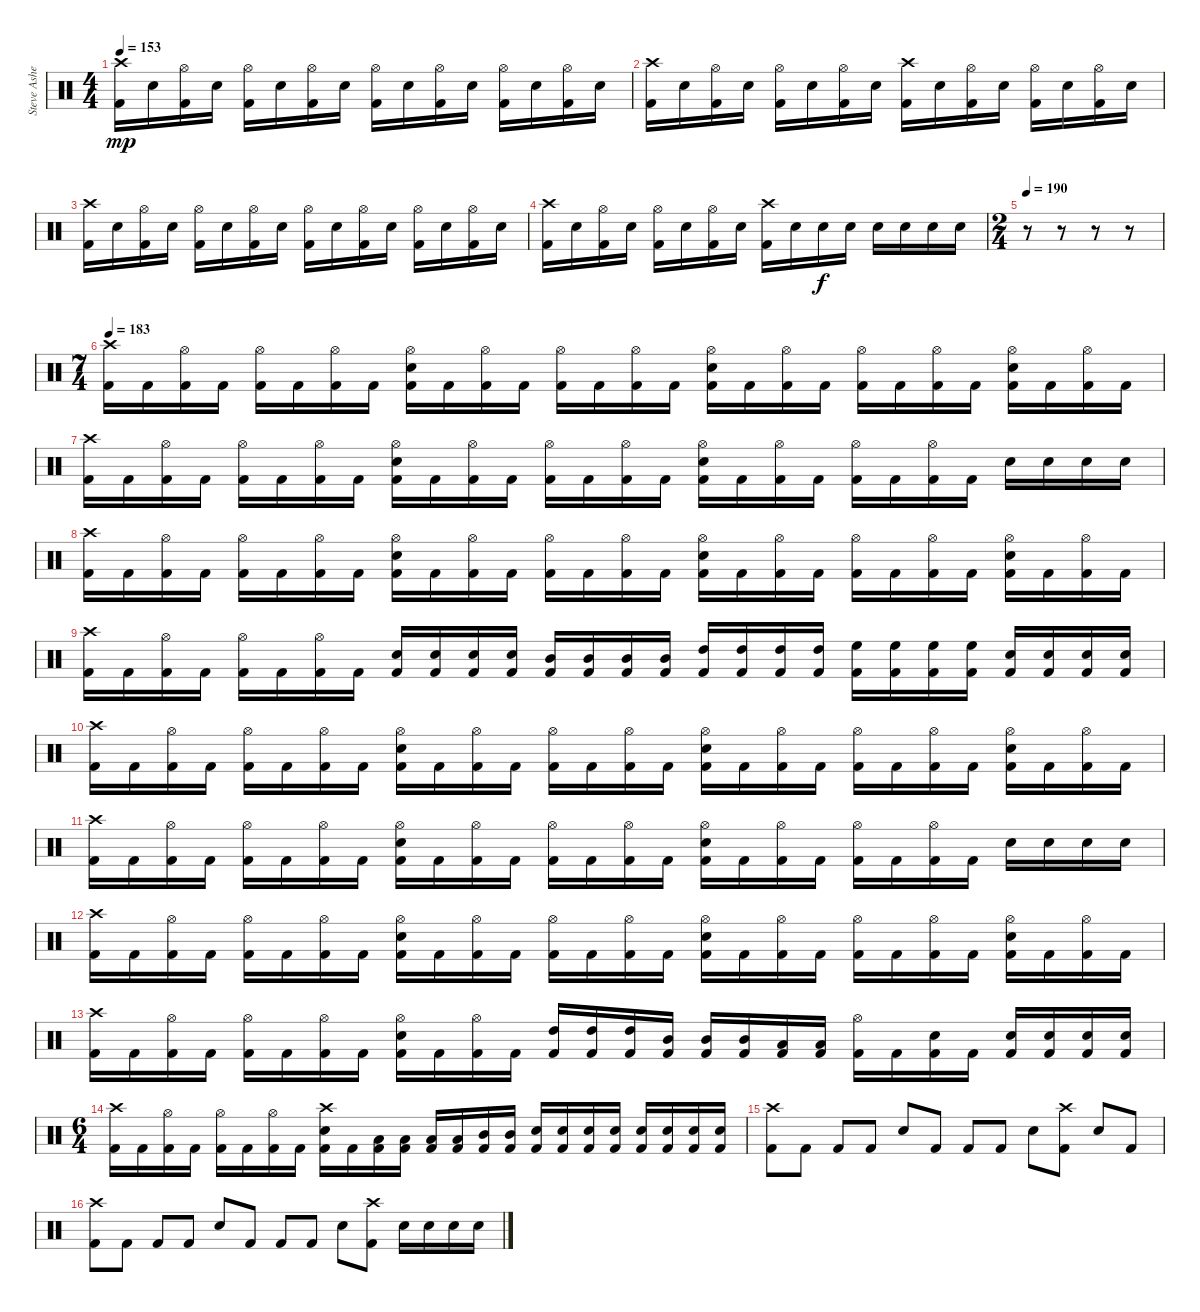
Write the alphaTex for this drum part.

\track ("Steve Asheim" "Steve Ashe") {instrument percussion}
\staff {score}
\articulation defaults
\ts (4 4)
\tempo 153
\clef neutral
\ks c
("Crash high (hit)" "Kick (hit) 2").16{dy mp} "Electric Snare (hit)".16 ("Hi-Hat (open)" "Kick (hit) 2").16 "Electric Snare (hit)".16 ("Hi-Hat (open)" "Kick (hit) 2").16 "Electric Snare (hit)".16 ("Hi-Hat (open)" "Kick (hit) 2").16 "Electric Snare (hit)".16 ("Hi-Hat (open)" "Kick (hit) 2").16 "Electric Snare (hit)".16 ("Hi-Hat (open)" "Kick (hit) 2").16 "Electric Snare (hit)".16 ("Hi-Hat (open)" "Kick (hit) 2").16 "Electric Snare (hit)".16 ("Hi-Hat (open)" "Kick (hit) 2").16 "Electric Snare (hit)".16 |
("Crash high (hit)" "Kick (hit) 2").16 "Electric Snare (hit)".16 ("Hi-Hat (open)" "Kick (hit) 2").16 "Electric Snare (hit)".16 ("Hi-Hat (open)" "Kick (hit) 2").16 "Electric Snare (hit)".16 ("Hi-Hat (open)" "Kick (hit) 2").16 "Electric Snare (hit)".16 ("Crash high (hit)" "Kick (hit) 2").16 "Electric Snare (hit)".16 ("Hi-Hat (open)" "Kick (hit) 2").16 "Electric Snare (hit)".16 ("Hi-Hat (open)" "Kick (hit) 2").16 "Electric Snare (hit)".16 ("Hi-Hat (open)" "Kick (hit) 2").16 "Electric Snare (hit)".16 |
("Crash high (hit)" "Kick (hit) 2").16 "Electric Snare (hit)".16 ("Hi-Hat (open)" "Kick (hit) 2").16 "Electric Snare (hit)".16 ("Hi-Hat (open)" "Kick (hit) 2").16 "Electric Snare (hit)".16 ("Hi-Hat (open)" "Kick (hit) 2").16 "Electric Snare (hit)".16 ("Hi-Hat (open)" "Kick (hit) 2").16 "Electric Snare (hit)".16 ("Hi-Hat (open)" "Kick (hit) 2").16 "Electric Snare (hit)".16 ("Hi-Hat (open)" "Kick (hit) 2").16 "Electric Snare (hit)".16 ("Hi-Hat (open)" "Kick (hit) 2").16 "Electric Snare (hit)".16 |
("Crash high (hit)" "Kick (hit) 2").16 "Electric Snare (hit)".16 ("Hi-Hat (open)" "Kick (hit) 2").16 "Electric Snare (hit)".16 ("Hi-Hat (open)" "Kick (hit) 2").16 "Electric Snare (hit)".16 ("Hi-Hat (open)" "Kick (hit) 2").16 "Electric Snare (hit)".16 ("Crash high (hit)" "Kick (hit) 2").16 "Electric Snare (hit)".16 "Electric Snare (hit)".16{dy f} "Electric Snare (hit)".16 "Electric Snare (hit)".16 "Electric Snare (hit)".16 "Electric Snare (hit)".16 "Electric Snare (hit)".16 |
\ts (2 4)
\tempo 190
r.8 r.8 r.8 r.8 |
\ts (7 4)
\tempo 183
("Crash high (hit)" "Kick (hit) 2").16 "Kick (hit) 2".16 ("Hi-Hat (open)" "Kick (hit) 2").16 "Kick (hit) 2".16 ("Hi-Hat (open)" "Kick (hit) 2").16 "Kick (hit) 2".16 ("Hi-Hat (open)" "Kick (hit) 2").16 "Kick (hit) 2".16 ("Hi-Hat (open)" "Electric Snare (hit)" "Kick (hit) 2").16 "Kick (hit) 2".16 ("Hi-Hat (open)" "Kick (hit) 2").16 "Kick (hit) 2".16 ("Hi-Hat (open)" "Kick (hit) 2").16 "Kick (hit) 2".16 ("Hi-Hat (open)" "Kick (hit) 2").16 "Kick (hit) 2".16 ("Hi-Hat (open)" "Electric Snare (hit)" "Kick (hit) 2").16 "Kick (hit) 2".16 ("Hi-Hat (open)" "Kick (hit) 2").16 "Kick (hit) 2".16 ("Hi-Hat (open)" "Kick (hit) 2").16 "Kick (hit) 2".16 ("Hi-Hat (open)" "Kick (hit) 2").16 "Kick (hit) 2".16 ("Hi-Hat (open)" "Electric Snare (hit)" "Kick (hit) 2").16 "Kick (hit) 2".16 ("Hi-Hat (open)" "Kick (hit) 2").16 "Kick (hit) 2".16 |
("Crash high (hit)" "Kick (hit) 2").16 "Kick (hit) 2".16 ("Hi-Hat (open)" "Kick (hit) 2").16 "Kick (hit) 2".16 ("Hi-Hat (open)" "Kick (hit) 2").16 "Kick (hit) 2".16 ("Hi-Hat (open)" "Kick (hit) 2").16 "Kick (hit) 2".16 ("Hi-Hat (open)" "Electric Snare (hit)" "Kick (hit) 2").16 "Kick (hit) 2".16 ("Hi-Hat (open)" "Kick (hit) 2").16 "Kick (hit) 2".16 ("Hi-Hat (open)" "Kick (hit) 2").16 "Kick (hit) 2".16 ("Hi-Hat (open)" "Kick (hit) 2").16 "Kick (hit) 2".16 ("Hi-Hat (open)" "Electric Snare (hit)" "Kick (hit) 2").16 "Kick (hit) 2".16 ("Hi-Hat (open)" "Kick (hit) 2").16 "Kick (hit) 2".16 ("Hi-Hat (open)" "Kick (hit) 2").16 "Kick (hit) 2".16 ("Hi-Hat (open)" "Kick (hit) 2").16 "Kick (hit) 2".16 "Electric Snare (hit)".16 "Electric Snare (hit)".16 "Electric Snare (hit)".16 "Electric Snare (hit)".16 |
("Crash high (hit)" "Kick (hit) 2").16 "Kick (hit) 2".16 ("Hi-Hat (open)" "Kick (hit) 2").16 "Kick (hit) 2".16 ("Hi-Hat (open)" "Kick (hit) 2").16 "Kick (hit) 2".16 ("Hi-Hat (open)" "Kick (hit) 2").16 "Kick (hit) 2".16 ("Hi-Hat (open)" "Electric Snare (hit)" "Kick (hit) 2").16 "Kick (hit) 2".16 ("Hi-Hat (open)" "Kick (hit) 2").16 "Kick (hit) 2".16 ("Hi-Hat (open)" "Kick (hit) 2").16 "Kick (hit) 2".16 ("Hi-Hat (open)" "Kick (hit) 2").16 "Kick (hit) 2".16 ("Hi-Hat (open)" "Electric Snare (hit)" "Kick (hit) 2").16 "Kick (hit) 2".16 ("Hi-Hat (open)" "Kick (hit) 2").16 "Kick (hit) 2".16 ("Hi-Hat (open)" "Kick (hit) 2").16 "Kick (hit) 2".16 ("Hi-Hat (open)" "Kick (hit) 2").16 "Kick (hit) 2".16 ("Hi-Hat (open)" "Electric Snare (hit)" "Kick (hit) 2").16 "Kick (hit) 2".16 ("Hi-Hat (open)" "Kick (hit) 2").16 "Kick (hit) 2".16 |
("Crash high (hit)" "Kick (hit) 2").16 "Kick (hit) 2".16 ("Hi-Hat (open)" "Kick (hit) 2").16 "Kick (hit) 2".16 ("Hi-Hat (open)" "Kick (hit) 2").16 "Kick (hit) 2".16 ("Hi-Hat (open)" "Kick (hit) 2").16 "Kick (hit) 2".16 ("Snare (hit) 2" "Kick (hit) 2").16 ("Snare (hit) 2" "Kick (hit) 2").16 ("Snare (hit) 2" "Kick (hit) 2").16 ("Snare (hit) 2" "Kick (hit) 2").16 ("Mid Tom (hit)" "Kick (hit) 2").16 ("Mid Tom (hit)" "Kick (hit) 2").16 ("Mid Tom (hit)" "Kick (hit) 2").16 ("Mid Tom (hit)" "Kick (hit) 2").16 ("High Tom (hit)" "Kick (hit) 2").16 ("High Tom (hit)" "Kick (hit) 2").16 ("High Tom (hit)" "Kick (hit) 2").16 ("High Tom (hit)" "Kick (hit) 2").16 ("High Floor Tom (hit)" "Kick (hit) 2").16 ("High Floor Tom (hit)" "Kick (hit) 2").16 ("High Floor Tom (hit)" "Kick (hit) 2").16 ("High Floor Tom (hit)" "Kick (hit) 2").16 ("Electric Snare (hit)" "Kick (hit) 2").16 ("Electric Snare (hit)" "Kick (hit) 2").16 ("Electric Snare (hit)" "Kick (hit) 2").16 ("Electric Snare (hit)" "Kick (hit) 2").16 |
("Crash high (hit)" "Kick (hit) 2").16 "Kick (hit) 2".16 ("Hi-Hat (open)" "Kick (hit) 2").16 "Kick (hit) 2".16 ("Hi-Hat (open)" "Kick (hit) 2").16 "Kick (hit) 2".16 ("Hi-Hat (open)" "Kick (hit) 2").16 "Kick (hit) 2".16 ("Hi-Hat (open)" "Electric Snare (hit)" "Kick (hit) 2").16 "Kick (hit) 2".16 ("Hi-Hat (open)" "Kick (hit) 2").16 "Kick (hit) 2".16 ("Hi-Hat (open)" "Kick (hit) 2").16 "Kick (hit) 2".16 ("Hi-Hat (open)" "Kick (hit) 2").16 "Kick (hit) 2".16 ("Hi-Hat (open)" "Electric Snare (hit)" "Kick (hit) 2").16 "Kick (hit) 2".16 ("Hi-Hat (open)" "Kick (hit) 2").16 "Kick (hit) 2".16 ("Hi-Hat (open)" "Kick (hit) 2").16 "Kick (hit) 2".16 ("Hi-Hat (open)" "Kick (hit) 2").16 "Kick (hit) 2".16 ("Hi-Hat (open)" "Electric Snare (hit)" "Kick (hit) 2").16 "Kick (hit) 2".16 ("Hi-Hat (open)" "Kick (hit) 2").16 "Kick (hit) 2".16 |
("Crash high (hit)" "Kick (hit) 2").16 "Kick (hit) 2".16 ("Hi-Hat (open)" "Kick (hit) 2").16 "Kick (hit) 2".16 ("Hi-Hat (open)" "Kick (hit) 2").16 "Kick (hit) 2".16 ("Hi-Hat (open)" "Kick (hit) 2").16 "Kick (hit) 2".16 ("Hi-Hat (open)" "Electric Snare (hit)" "Kick (hit) 2").16 "Kick (hit) 2".16 ("Hi-Hat (open)" "Kick (hit) 2").16 "Kick (hit) 2".16 ("Hi-Hat (open)" "Kick (hit) 2").16 "Kick (hit) 2".16 ("Hi-Hat (open)" "Kick (hit) 2").16 "Kick (hit) 2".16 ("Hi-Hat (open)" "Electric Snare (hit)" "Kick (hit) 2").16 "Kick (hit) 2".16 ("Hi-Hat (open)" "Kick (hit) 2").16 "Kick (hit) 2".16 ("Hi-Hat (open)" "Kick (hit) 2").16 "Kick (hit) 2".16 ("Hi-Hat (open)" "Kick (hit) 2").16 "Kick (hit) 2".16 "Electric Snare (hit)".16 "Electric Snare (hit)".16 "Electric Snare (hit)".16 "Electric Snare (hit)".16 |
("Crash high (hit)" "Kick (hit) 2").16 "Kick (hit) 2".16 ("Hi-Hat (open)" "Kick (hit) 2").16 "Kick (hit) 2".16 ("Hi-Hat (open)" "Kick (hit) 2").16 "Kick (hit) 2".16 ("Hi-Hat (open)" "Kick (hit) 2").16 "Kick (hit) 2".16 ("Hi-Hat (open)" "Electric Snare (hit)" "Kick (hit) 2").16 "Kick (hit) 2".16 ("Hi-Hat (open)" "Kick (hit) 2").16 "Kick (hit) 2".16 ("Hi-Hat (open)" "Kick (hit) 2").16 "Kick (hit) 2".16 ("Hi-Hat (open)" "Kick (hit) 2").16 "Kick (hit) 2".16 ("Hi-Hat (open)" "Electric Snare (hit)" "Kick (hit) 2").16 "Kick (hit) 2".16 ("Hi-Hat (open)" "Kick (hit) 2").16 "Kick (hit) 2".16 ("Hi-Hat (open)" "Kick (hit) 2").16 "Kick (hit) 2".16 ("Hi-Hat (open)" "Kick (hit) 2").16 "Kick (hit) 2".16 ("Hi-Hat (open)" "Electric Snare (hit)" "Kick (hit) 2").16 "Kick (hit) 2".16 ("Hi-Hat (open)" "Kick (hit) 2").16 "Kick (hit) 2".16 |
("Crash high (hit)" "Kick (hit) 2").16 "Kick (hit) 2".16 ("Hi-Hat (open)" "Kick (hit) 2").16 "Kick (hit) 2".16 ("Hi-Hat (open)" "Kick (hit) 2").16 "Kick (hit) 2".16 ("Hi-Hat (open)" "Kick (hit) 2").16 "Kick (hit) 2".16 ("Hi-Hat (open)" "Electric Snare (hit)" "Kick (hit) 2").16 "Kick (hit) 2".16 ("Hi-Hat (open)" "Kick (hit) 2").16 "Kick (hit) 2".16 ("High Tom (hit)" "Kick (hit) 2").16 ("High Tom (hit)" "Kick (hit) 2").16 ("High Tom (hit)" "Kick (hit) 2").16 ("Mid Tom (hit)" "Kick (hit) 2").16 ("Mid Tom (hit)" "Kick (hit) 2").16 ("Mid Tom (hit)" "Kick (hit) 2").16 ("Low Tom (hit)" "Kick (hit) 2").16 ("Low Tom (hit)" "Kick (hit) 2").16 ("Hi-Hat (open)" "Kick (hit) 2").16 "Kick (hit) 2".16 ("Electric Snare (hit)" "Kick (hit) 2").16 "Kick (hit) 2".16 ("Electric Snare (hit)" "Kick (hit) 2").16 ("Electric Snare (hit)" "Kick (hit) 2").16 ("Electric Snare (hit)" "Kick (hit) 2").16 ("Electric Snare (hit)" "Kick (hit) 2").16 |
\ts (6 4)
("Crash high (hit)" "Kick (hit) 2").16 "Kick (hit) 2".16 ("Hi-Hat (open)" "Kick (hit) 2").16 "Kick (hit) 2".16 ("Hi-Hat (open)" "Kick (hit) 2").16 "Kick (hit) 2".16 ("Hi-Hat (open)" "Kick (hit) 2").16 "Kick (hit) 2".16 ("Crash high (hit)" "Electric Snare (hit)" "Kick (hit) 2").16 "Kick (hit) 2".16 ("Low Tom (hit)" "Kick (hit) 2").16 ("Low Tom (hit)" "Kick (hit) 2").16 ("Low Tom (hit)" "Kick (hit) 2").16 ("Low Tom (hit)" "Kick (hit) 2").16 ("Mid Tom (hit)" "Kick (hit) 2").16 ("Mid Tom (hit)" "Kick (hit) 2").16 ("Electric Snare (hit)" "Kick (hit) 2").16 ("Electric Snare (hit)" "Kick (hit) 2").16 ("Electric Snare (hit)" "Kick (hit) 2").16 ("Electric Snare (hit)" "Kick (hit) 2").16 ("Electric Snare (hit)" "Kick (hit) 2").16 ("Electric Snare (hit)" "Kick (hit) 2").16 ("Electric Snare (hit)" "Kick (hit) 2").16 ("Electric Snare (hit)" "Kick (hit) 2").16 |
("Crash high (hit)" "Kick (hit) 2").8 "Kick (hit) 2".8 "Kick (hit) 2".8 "Kick (hit) 2".8 "Electric Snare (hit)".8 "Kick (hit) 2".8 "Kick (hit) 2".8 "Kick (hit) 2".8 "Electric Snare (hit)".8 ("Crash high (hit)" "Kick (hit) 2").8 "Electric Snare (hit)".8 "Kick (hit) 2".8 |
("Crash high (hit)" "Kick (hit) 2").8 "Kick (hit) 2".8 "Kick (hit) 2".8 "Kick (hit) 2".8 "Electric Snare (hit)".8 "Kick (hit) 2".8 "Kick (hit) 2".8 "Kick (hit) 2".8 "Electric Snare (hit)".8 ("Crash high (hit)" "Kick (hit) 2").8 "Snare (hit) 2".16 "Snare (hit) 2".16 "Electric Snare (hit)".16 "Electric Snare (hit)".16
